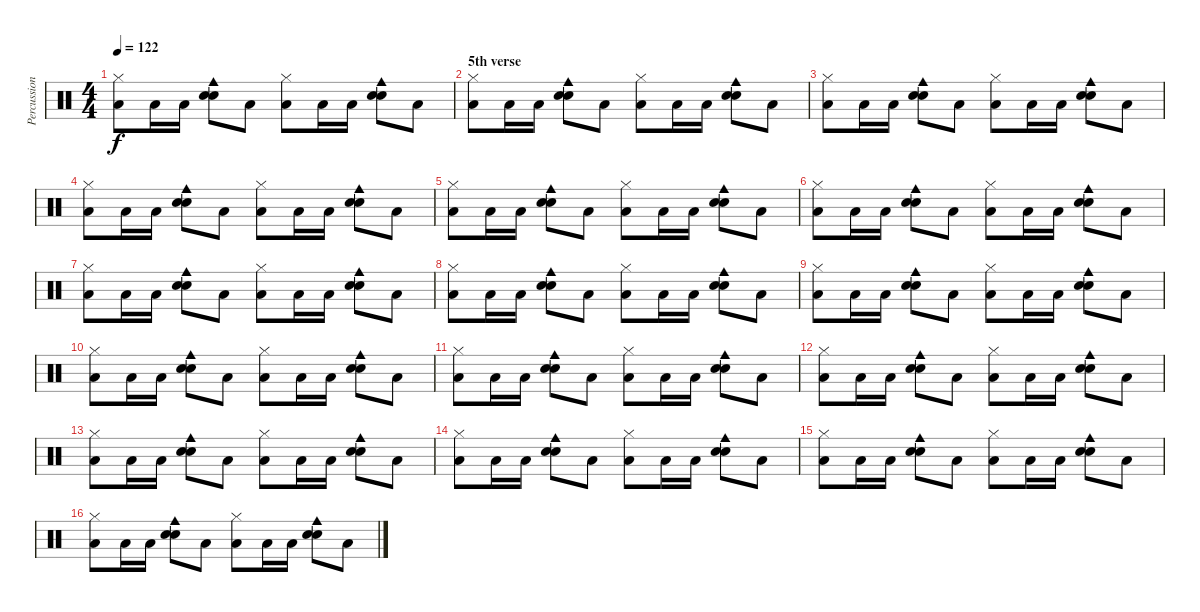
\track ("Percussion" "Percussion") {instrument percussion}
\staff {score}
\articulation defaults
\ts (4 4)
\tempo 122
\clef neutral
\ks c
("Hi-Hat (closed)" "Low Tom (hit)").8{dy f} "Low Tom (hit)".16 "Low Tom (hit)".16 ("Snare (hit) 2" "Electric Snare (hit)" "Cowbell medium (hit)").8 "Low Tom (hit)".8 ("Hi-Hat (closed)" "Low Tom (hit)").8 "Low Tom (hit)".16 "Low Tom (hit)".16 ("Snare (hit) 2" "Electric Snare (hit)" "Cowbell medium (hit)").8 "Low Tom (hit)".8 |
\section ("" "5th verse")
("Hi-Hat (closed)" "Low Tom (hit)").8 "Low Tom (hit)".16 "Low Tom (hit)".16 ("Snare (hit) 2" "Electric Snare (hit)" "Cowbell medium (hit)").8 "Low Tom (hit)".8 ("Hi-Hat (closed)" "Low Tom (hit)").8 "Low Tom (hit)".16 "Low Tom (hit)".16 ("Snare (hit) 2" "Electric Snare (hit)" "Cowbell medium (hit)").8 "Low Tom (hit)".8 |
("Hi-Hat (closed)" "Low Tom (hit)").8 "Low Tom (hit)".16 "Low Tom (hit)".16 ("Snare (hit) 2" "Electric Snare (hit)" "Cowbell medium (hit)").8 "Low Tom (hit)".8 ("Hi-Hat (closed)" "Low Tom (hit)").8 "Low Tom (hit)".16 "Low Tom (hit)".16 ("Snare (hit) 2" "Electric Snare (hit)" "Cowbell medium (hit)").8 "Low Tom (hit)".8 |
("Hi-Hat (closed)" "Low Tom (hit)").8 "Low Tom (hit)".16 "Low Tom (hit)".16 ("Snare (hit) 2" "Electric Snare (hit)" "Cowbell medium (hit)").8 "Low Tom (hit)".8 ("Hi-Hat (closed)" "Low Tom (hit)").8 "Low Tom (hit)".16 "Low Tom (hit)".16 ("Snare (hit) 2" "Electric Snare (hit)" "Cowbell medium (hit)").8 "Low Tom (hit)".8 |
("Hi-Hat (closed)" "Low Tom (hit)").8 "Low Tom (hit)".16 "Low Tom (hit)".16 ("Snare (hit) 2" "Electric Snare (hit)" "Cowbell medium (hit)").8 "Low Tom (hit)".8 ("Hi-Hat (closed)" "Low Tom (hit)").8 "Low Tom (hit)".16 "Low Tom (hit)".16 ("Snare (hit) 2" "Electric Snare (hit)" "Cowbell medium (hit)").8 "Low Tom (hit)".8 |
("Hi-Hat (closed)" "Low Tom (hit)").8 "Low Tom (hit)".16 "Low Tom (hit)".16 ("Snare (hit) 2" "Electric Snare (hit)" "Cowbell medium (hit)").8 "Low Tom (hit)".8 ("Hi-Hat (closed)" "Low Tom (hit)").8 "Low Tom (hit)".16 "Low Tom (hit)".16 ("Snare (hit) 2" "Electric Snare (hit)" "Cowbell medium (hit)").8 "Low Tom (hit)".8 |
("Hi-Hat (closed)" "Low Tom (hit)").8 "Low Tom (hit)".16 "Low Tom (hit)".16 ("Snare (hit) 2" "Electric Snare (hit)" "Cowbell medium (hit)").8 "Low Tom (hit)".8 ("Hi-Hat (closed)" "Low Tom (hit)").8 "Low Tom (hit)".16 "Low Tom (hit)".16 ("Snare (hit) 2" "Electric Snare (hit)" "Cowbell medium (hit)").8 "Low Tom (hit)".8 |
("Hi-Hat (closed)" "Low Tom (hit)").8 "Low Tom (hit)".16 "Low Tom (hit)".16 ("Snare (hit) 2" "Electric Snare (hit)" "Cowbell medium (hit)").8 "Low Tom (hit)".8 ("Hi-Hat (closed)" "Low Tom (hit)").8 "Low Tom (hit)".16 "Low Tom (hit)".16 ("Snare (hit) 2" "Electric Snare (hit)" "Cowbell medium (hit)").8 "Low Tom (hit)".8 |
("Hi-Hat (closed)" "Low Tom (hit)").8 "Low Tom (hit)".16 "Low Tom (hit)".16 ("Snare (hit) 2" "Electric Snare (hit)" "Cowbell medium (hit)").8 "Low Tom (hit)".8 ("Hi-Hat (closed)" "Low Tom (hit)").8 "Low Tom (hit)".16 "Low Tom (hit)".16 ("Snare (hit) 2" "Electric Snare (hit)" "Cowbell medium (hit)").8 "Low Tom (hit)".8 |
("Hi-Hat (closed)" "Low Tom (hit)").8 "Low Tom (hit)".16 "Low Tom (hit)".16 ("Snare (hit) 2" "Electric Snare (hit)" "Cowbell medium (hit)").8 "Low Tom (hit)".8 ("Hi-Hat (closed)" "Low Tom (hit)").8 "Low Tom (hit)".16 "Low Tom (hit)".16 ("Snare (hit) 2" "Electric Snare (hit)" "Cowbell medium (hit)").8 "Low Tom (hit)".8 |
("Hi-Hat (closed)" "Low Tom (hit)").8 "Low Tom (hit)".16 "Low Tom (hit)".16 ("Snare (hit) 2" "Electric Snare (hit)" "Cowbell medium (hit)").8 "Low Tom (hit)".8 ("Hi-Hat (closed)" "Low Tom (hit)").8 "Low Tom (hit)".16 "Low Tom (hit)".16 ("Snare (hit) 2" "Electric Snare (hit)" "Cowbell medium (hit)").8 "Low Tom (hit)".8 |
("Hi-Hat (closed)" "Low Tom (hit)").8 "Low Tom (hit)".16 "Low Tom (hit)".16 ("Snare (hit) 2" "Electric Snare (hit)" "Cowbell medium (hit)").8 "Low Tom (hit)".8 ("Hi-Hat (closed)" "Low Tom (hit)").8 "Low Tom (hit)".16 "Low Tom (hit)".16 ("Snare (hit) 2" "Electric Snare (hit)" "Cowbell medium (hit)").8 "Low Tom (hit)".8 |
("Hi-Hat (closed)" "Low Tom (hit)").8 "Low Tom (hit)".16 "Low Tom (hit)".16 ("Snare (hit) 2" "Electric Snare (hit)" "Cowbell medium (hit)").8 "Low Tom (hit)".8 ("Hi-Hat (closed)" "Low Tom (hit)").8 "Low Tom (hit)".16 "Low Tom (hit)".16 ("Snare (hit) 2" "Electric Snare (hit)" "Cowbell medium (hit)").8 "Low Tom (hit)".8 |
("Hi-Hat (closed)" "Low Tom (hit)").8 "Low Tom (hit)".16 "Low Tom (hit)".16 ("Snare (hit) 2" "Electric Snare (hit)" "Cowbell medium (hit)").8 "Low Tom (hit)".8 ("Hi-Hat (closed)" "Low Tom (hit)").8 "Low Tom (hit)".16 "Low Tom (hit)".16 ("Snare (hit) 2" "Electric Snare (hit)" "Cowbell medium (hit)").8 "Low Tom (hit)".8 |
("Hi-Hat (closed)" "Low Tom (hit)").8 "Low Tom (hit)".16 "Low Tom (hit)".16 ("Snare (hit) 2" "Electric Snare (hit)" "Cowbell medium (hit)").8 "Low Tom (hit)".8 ("Hi-Hat (closed)" "Low Tom (hit)").8 "Low Tom (hit)".16 "Low Tom (hit)".16 ("Snare (hit) 2" "Electric Snare (hit)" "Cowbell medium (hit)").8 "Low Tom (hit)".8 |
("Hi-Hat (closed)" "Low Tom (hit)").8 "Low Tom (hit)".16 "Low Tom (hit)".16 ("Snare (hit) 2" "Electric Snare (hit)" "Cowbell medium (hit)").8 "Low Tom (hit)".8 ("Hi-Hat (closed)" "Low Tom (hit)").8 "Low Tom (hit)".16 "Low Tom (hit)".16 ("Snare (hit) 2" "Electric Snare (hit)" "Cowbell medium (hit)").8 "Low Tom (hit)".8
